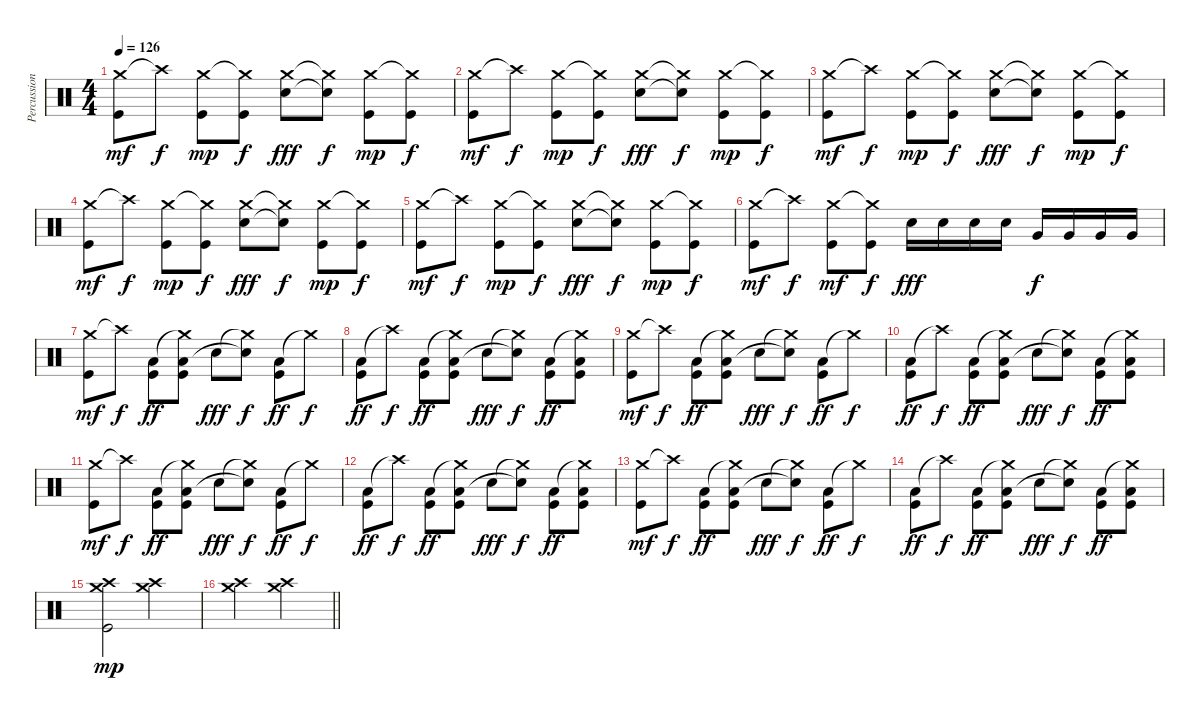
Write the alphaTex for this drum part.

\track ("Percussions" "Percussion") {instrument percussion}
\staff {score}
\articulation defaults
\ts (4 4)
\tempo 126
\clef neutral
\ks c
("Crash medium (hit)" "Kick (hit)").8{dy mf} "Crash high (hit)"{t}.8{dy f} ("Crash medium (hit)" "Kick (hit)").8{dy mp} ("Crash medium (hit)"{t} "Kick (hit)").8{dy f} ("Crash medium (hit)" "Snare (hit) 2").8{dy fff} ("Crash medium (hit)"{t} "Snare (hit) 2"{t}).8{dy f} ("Crash medium (hit)" "Kick (hit)").8{dy mp} ("Crash medium (hit)"{t} "Kick (hit)").8{dy f} |
("Crash medium (hit)" "Kick (hit)").8{dy mf} "Crash high (hit)"{t}.8{dy f} ("Crash medium (hit)" "Kick (hit)").8{dy mp} ("Crash medium (hit)"{t} "Kick (hit)").8{dy f} ("Crash medium (hit)" "Snare (hit) 2").8{dy fff} ("Crash medium (hit)"{t} "Snare (hit) 2"{t}).8{dy f} ("Crash medium (hit)" "Kick (hit)").8{dy mp} ("Crash medium (hit)"{t} "Kick (hit)").8{dy f} |
("Crash medium (hit)" "Kick (hit)").8{dy mf} "Crash high (hit)"{t}.8{dy f} ("Crash medium (hit)" "Kick (hit)").8{dy mp} ("Crash medium (hit)"{t} "Kick (hit)").8{dy f} ("Crash medium (hit)" "Snare (hit) 2").8{dy fff} ("Crash medium (hit)"{t} "Snare (hit) 2"{t}).8{dy f} ("Crash medium (hit)" "Kick (hit)").8{dy mp} ("Crash medium (hit)"{t} "Kick (hit)").8{dy f} |
("Crash medium (hit)" "Kick (hit)").8{dy mf} "Crash high (hit)"{t}.8{dy f} ("Crash medium (hit)" "Kick (hit)").8{dy mp} ("Crash medium (hit)"{t} "Kick (hit)").8{dy f} ("Crash medium (hit)" "Snare (hit) 2").8{dy fff} ("Crash medium (hit)"{t} "Snare (hit) 2"{t}).8{dy f} ("Crash medium (hit)" "Kick (hit)").8{dy mp} ("Crash medium (hit)"{t} "Kick (hit)").8{dy f} |
("Crash medium (hit)" "Kick (hit)").8{dy mf} "Crash high (hit)"{t}.8{dy f} ("Crash medium (hit)" "Kick (hit)").8{dy mp} ("Crash medium (hit)"{t} "Kick (hit)").8{dy f} ("Crash medium (hit)" "Snare (hit) 2").8{dy fff} ("Crash medium (hit)"{t} "Snare (hit) 2"{t}).8{dy f} ("Crash medium (hit)" "Kick (hit)").8{dy mp} ("Crash medium (hit)"{t} "Kick (hit)").8{dy f} |
("Crash medium (hit)" "Kick (hit)").8{dy mf} "Crash high (hit)"{t}.8{dy f} ("Crash medium (hit)" "Kick (hit)").8{dy mf} ("Crash medium (hit)"{t} "Kick (hit)").8{dy f} "Snare (hit) 2".16{dy fff} "Snare (hit) 2".16 "Snare (hit) 2".16 "Snare (hit) 2".16 "Very Low Tom (hit)".16{dy f} "Very Low Tom (hit)".16 "Very Low Tom (hit)".16 "Very Low Tom (hit)".16 |
("Crash medium (hit)" "Kick (hit)").8{dy mf} "Crash high (hit)"{t}.8{dy f} ("Low Floor Tom (hit)" "Kick (hit)").8{dy ff} ("Crash medium (hit)"{t} "Low Floor Tom (hit)" "Kick (hit)").8 "Snare (hit) 2".8{dy fff} ("Crash medium (hit)"{t} "Snare (hit) 2"{t}).8{dy f} ("Low Floor Tom (hit)" "Kick (hit)").8{dy ff} "Crash medium (hit)"{t}.8{dy f} |
("Low Floor Tom (hit)" "Kick (hit)").8{dy ff} "Crash high (hit)"{t}.8{dy f} ("Low Floor Tom (hit)" "Kick (hit)").8{dy ff} ("Crash medium (hit)"{t} "Low Floor Tom (hit)" "Kick (hit)").8 "Snare (hit) 2".8{dy fff} ("Crash medium (hit)"{t} "Snare (hit) 2"{t}).8{dy f} ("Low Floor Tom (hit)" "Kick (hit)").8{dy ff} ("Crash medium (hit)"{t} "Low Floor Tom (hit)" "Kick (hit)").8 |
("Crash medium (hit)" "Kick (hit)").8{dy mf} "Crash high (hit)"{t}.8{dy f} ("Low Floor Tom (hit)" "Kick (hit)").8{dy ff} ("Crash medium (hit)"{t} "Low Floor Tom (hit)" "Kick (hit)").8 "Snare (hit) 2".8{dy fff} ("Crash medium (hit)"{t} "Snare (hit) 2"{t}).8{dy f} ("Low Floor Tom (hit)" "Kick (hit)").8{dy ff} "Crash medium (hit)"{t}.8{dy f} |
("Low Floor Tom (hit)" "Kick (hit)").8{dy ff} "Crash high (hit)"{t}.8{dy f} ("Low Floor Tom (hit)" "Kick (hit)").8{dy ff} ("Crash medium (hit)"{t} "Low Floor Tom (hit)" "Kick (hit)").8 "Snare (hit) 2".8{dy fff} ("Crash medium (hit)"{t} "Snare (hit) 2"{t}).8{dy f} ("Low Floor Tom (hit)" "Kick (hit)").8{dy ff} ("Crash medium (hit)"{t} "Low Floor Tom (hit)" "Kick (hit)").8 |
("Crash medium (hit)" "Kick (hit)").8{dy mf} "Crash high (hit)"{t}.8{dy f} ("Low Floor Tom (hit)" "Kick (hit)").8{dy ff} ("Crash medium (hit)"{t} "Low Floor Tom (hit)" "Kick (hit)").8 "Snare (hit) 2".8{dy fff} ("Crash medium (hit)"{t} "Snare (hit) 2"{t}).8{dy f} ("Low Floor Tom (hit)" "Kick (hit)").8{dy ff} "Crash medium (hit)"{t}.8{dy f} |
("Low Floor Tom (hit)" "Kick (hit)").8{dy ff} "Crash high (hit)"{t}.8{dy f} ("Low Floor Tom (hit)" "Kick (hit)").8{dy ff} ("Crash medium (hit)"{t} "Low Floor Tom (hit)" "Kick (hit)").8 "Snare (hit) 2".8{dy fff} ("Crash medium (hit)"{t} "Snare (hit) 2"{t}).8{dy f} ("Low Floor Tom (hit)" "Kick (hit)").8{dy ff} ("Crash medium (hit)"{t} "Low Floor Tom (hit)" "Kick (hit)").8 |
("Crash medium (hit)" "Kick (hit)").8{dy mf} "Crash high (hit)"{t}.8{dy f} ("Low Floor Tom (hit)" "Kick (hit)").8{dy ff} ("Crash medium (hit)"{t} "Low Floor Tom (hit)" "Kick (hit)").8 "Snare (hit) 2".8{dy fff} ("Crash medium (hit)"{t} "Snare (hit) 2"{t}).8{dy f} ("Low Floor Tom (hit)" "Kick (hit)").8{dy ff} "Crash medium (hit)"{t}.8{dy f} |
("Low Floor Tom (hit)" "Kick (hit)").8{dy ff} "Crash high (hit)"{t}.8{dy f} ("Low Floor Tom (hit)" "Kick (hit)").8{dy ff} ("Crash medium (hit)"{t} "Low Floor Tom (hit)" "Kick (hit)").8 "Snare (hit) 2".8{dy fff} ("Crash medium (hit)"{t} "Snare (hit) 2"{t}).8{dy f} ("Low Floor Tom (hit)" "Kick (hit)").8{dy ff} ("Crash medium (hit)"{t} "Low Floor Tom (hit)" "Kick (hit)").8 |
("Crash medium (hit)" "Crash high (hit)" "Kick (hit)").2{dy mp} ("Crash medium (hit)" "Crash high (hit)").2 |
\barLineRight lightlight
("Crash medium (hit)" "Crash high (hit)").2 ("Crash medium (hit)" "Crash high (hit)").2
